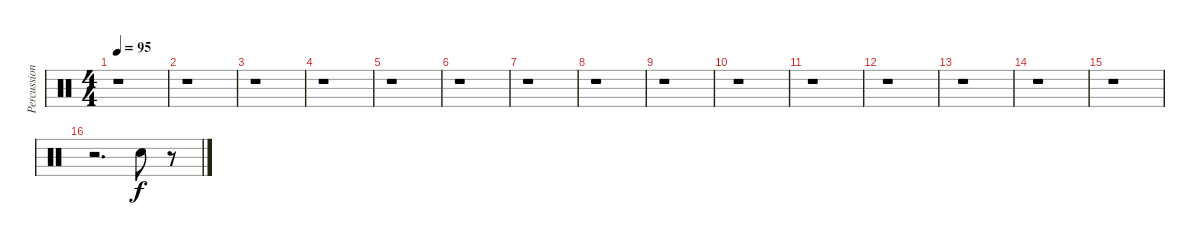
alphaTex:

\track ("Percussion (1)" "Percussion") {instrument percussion}
\staff {score}
\articulation defaults
\ts (4 4)
\tempo 95
\clef neutral
\ks c
r.1{dy f} |
r.1 |
r.1 |
r.1 |
r.1 |
r.1 |
r.1 |
r.1 |
r.1 |
r.1 |
r.1 |
r.1 |
r.1 |
r.1 |
r.1 |
r.2{d} "Snare (hit) 2".8 r.8
